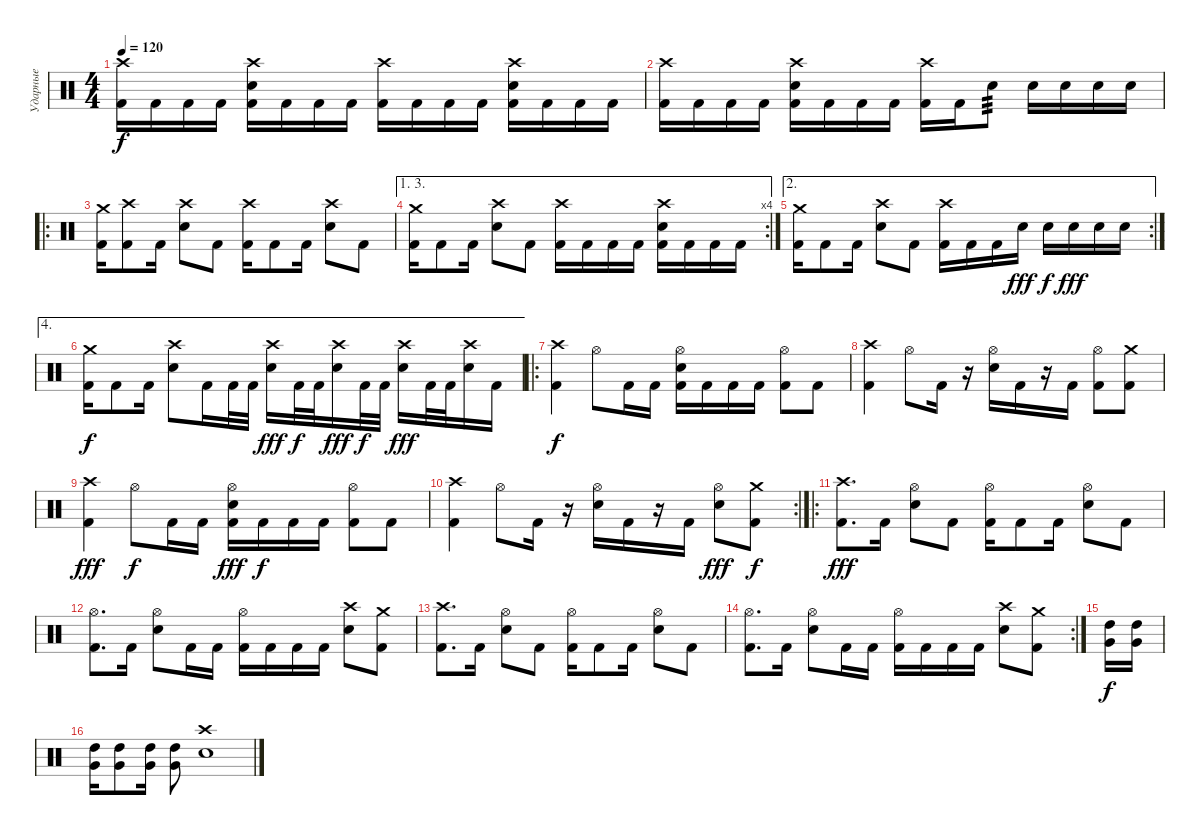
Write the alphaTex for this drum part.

\track ("Ударные" "Ударные") {instrument percussion}
\staff {score}
\articulation defaults
\ts (4 4)
\tempo 120
\clef neutral
\ks c
("Crash high (hit)" "Kick (hit) 2").16{dy f} "Kick (hit) 2".16 "Kick (hit) 2".16 "Kick (hit) 2".16 ("Crash high (hit)" "Electric Snare (hit)" "Kick (hit) 2").16 "Kick (hit) 2".16 "Kick (hit) 2".16 "Kick (hit) 2".16 ("Crash high (hit)" "Kick (hit) 2").16 "Kick (hit) 2".16 "Kick (hit) 2".16 "Kick (hit) 2".16 ("Crash high (hit)" "Electric Snare (hit)" "Kick (hit) 2").16 "Kick (hit) 2".16 "Kick (hit) 2".16 "Kick (hit) 2".16 |
("Crash high (hit)" "Kick (hit) 2").16 "Kick (hit) 2".16 "Kick (hit) 2".16 "Kick (hit) 2".16 ("Crash high (hit)" "Electric Snare (hit)" "Kick (hit) 2").16 "Kick (hit) 2".16 "Kick (hit) 2".16 "Kick (hit) 2".16 ("Crash high (hit)" "Kick (hit) 2").16 "Kick (hit) 2".16 "Electric Snare (hit)".8{tp 3} "Electric Snare (hit)".16 "Electric Snare (hit)".16 "Electric Snare (hit)".16 "Electric Snare (hit)".16 |
\ro
("Crash medium (hit)" "Kick (hit) 2").16 ("Crash high (hit)" "Kick (hit) 2").8 "Kick (hit) 2".16 ("Crash high (hit)" "Electric Snare (hit)").8 "Kick (hit) 2".8 ("Crash high (hit)" "Kick (hit) 2").16 "Kick (hit) 2".8 "Kick (hit) 2".16 ("Crash high (hit)" "Electric Snare (hit)").8 "Kick (hit) 2".8 |
\ae (1 3)
\rc 4
("Crash medium (hit)" "Kick (hit) 2").16 "Kick (hit) 2".8 "Kick (hit) 2".16 ("Crash high (hit)" "Electric Snare (hit)").8 "Kick (hit) 2".8 ("Crash high (hit)" "Kick (hit) 2").16 "Kick (hit) 2".16 "Kick (hit) 2".16 "Kick (hit) 2".16 ("Crash high (hit)" "Electric Snare (hit)" "Kick (hit) 2").16 "Kick (hit) 2".16 "Kick (hit) 2".16 "Kick (hit) 2".16 |
\ae 2
\rc 2
("Crash medium (hit)" "Kick (hit) 2").16 "Kick (hit) 2".8 "Kick (hit) 2".16 ("Crash high (hit)" "Electric Snare (hit)").8 "Kick (hit) 2".8 ("Crash high (hit)" "Kick (hit) 2").16 "Kick (hit) 2".16 "Kick (hit) 2".16 "Electric Snare (hit)".16{dy fff} "Electric Snare (hit)".16{dy f} "Electric Snare (hit)".16{dy fff} "Electric Snare (hit)".16 "Electric Snare (hit)".16 |
\ae 4
("Crash medium (hit)" "Kick (hit) 2").16{dy f} "Kick (hit) 2".8 "Kick (hit) 2".16 ("Crash high (hit)" "Electric Snare (hit)").8 "Kick (hit) 2".16 "Kick (hit) 2".32 "Kick (hit) 2".32 ("Crash high (hit)" "Electric Snare (hit)").16{dy fff} "Kick (hit) 2".32{dy f} "Kick (hit) 2".32 ("Crash high (hit)" "Electric Snare (hit)").16{dy fff} "Kick (hit) 2".32{dy f} "Kick (hit) 2".32 ("Crash high (hit)" "Electric Snare (hit)").16{dy fff} "Kick (hit) 2".32 "Kick (hit) 2".32 ("Crash high (hit)" "Electric Snare (hit)").16 "Kick (hit) 2".16 |
\ro
("Crash high (hit)" "Kick (hit) 2").4{dy f} "Hi-Hat (open)".8 "Kick (hit) 2".16 "Kick (hit) 2".16 ("Hi-Hat (open)" "Electric Snare (hit)" "Kick (hit) 2").16 "Kick (hit) 2".16 "Kick (hit) 2".16 "Kick (hit) 2".16 ("Hi-Hat (open)" "Kick (hit) 2").8 "Kick (hit) 2".8 |
("Crash high (hit)" "Kick (hit) 2").4 "Hi-Hat (open)".8 "Kick (hit) 2".16 r.16 ("Hi-Hat (open)" "Electric Snare (hit)").16 "Kick (hit) 2".16 r.16 "Kick (hit) 2".16 ("Hi-Hat (open)" "Kick (hit) 2").8 ("Crash medium (hit)" "Kick (hit) 2").8 |
("Crash high (hit)" "Kick (hit) 2").4{dy fff} "Hi-Hat (open)".8{dy f} "Kick (hit) 2".16 "Kick (hit) 2".16 ("Hi-Hat (open)" "Electric Snare (hit)" "Kick (hit) 2").16{dy fff} "Kick (hit) 2".16{dy f} "Kick (hit) 2".16 "Kick (hit) 2".16 ("Hi-Hat (open)" "Kick (hit) 2").8 "Kick (hit) 2".8 |
\rc 2
("Crash high (hit)" "Kick (hit) 2").4 "Hi-Hat (open)".8 "Kick (hit) 2".16 r.16 ("Hi-Hat (open)" "Electric Snare (hit)").16 "Kick (hit) 2".16 r.16 "Kick (hit) 2".16 ("Hi-Hat (open)" "Electric Snare (hit)").8{dy fff} ("Crash medium (hit)" "Kick (hit) 2").8{dy f} |
\ro
("Crash high (hit)" "Kick (hit) 2").8{d dy fff} "Kick (hit) 2".16 ("Hi-Hat (open)" "Electric Snare (hit)").8 "Kick (hit) 2".8 ("Hi-Hat (open)" "Kick (hit) 2").16 "Kick (hit) 2".8 "Kick (hit) 2".16 ("Hi-Hat (open)" "Electric Snare (hit)").8 "Kick (hit) 2".8 |
("Hi-Hat (open)" "Kick (hit) 2").8{d} "Kick (hit) 2".16 ("Hi-Hat (open)" "Electric Snare (hit)").8 "Kick (hit) 2".16 "Kick (hit) 2".16 ("Hi-Hat (open)" "Kick (hit) 2").16 "Kick (hit) 2".16 "Kick (hit) 2".16 "Kick (hit) 2".16 ("Crash high (hit)" "Electric Snare (hit)").8 ("Crash medium (hit)" "Kick (hit) 2").8 |
("Crash high (hit)" "Kick (hit) 2").8{d} "Kick (hit) 2".16 ("Hi-Hat (open)" "Electric Snare (hit)").8 "Kick (hit) 2".8 ("Hi-Hat (open)" "Kick (hit) 2").16 "Kick (hit) 2".8 "Kick (hit) 2".16 ("Hi-Hat (open)" "Electric Snare (hit)").8 "Kick (hit) 2".8 |
\rc 2
("Hi-Hat (open)" "Kick (hit) 2").8{d} "Kick (hit) 2".16 ("Hi-Hat (open)" "Electric Snare (hit)").8 "Kick (hit) 2".16 "Kick (hit) 2".16 ("Hi-Hat (open)" "Kick (hit) 2").16 "Kick (hit) 2".16 "Kick (hit) 2".16 "Kick (hit) 2".16 ("Crash high (hit)" "Electric Snare (hit)").8 ("Crash medium (hit)" "Kick (hit) 2").8 |
("High Tom (hit)" "Very Low Tom (hit)").16{dy f} ("High Tom (hit)" "Very Low Tom (hit)").16 |
("High Tom (hit)" "Very Low Tom (hit)").16 ("High Tom (hit)" "Very Low Tom (hit)").8 ("High Tom (hit)" "Very Low Tom (hit)").16 ("High Tom (hit)" "Very Low Tom (hit)").8 ("Crash high (hit)" "Electric Snare (hit)").1
